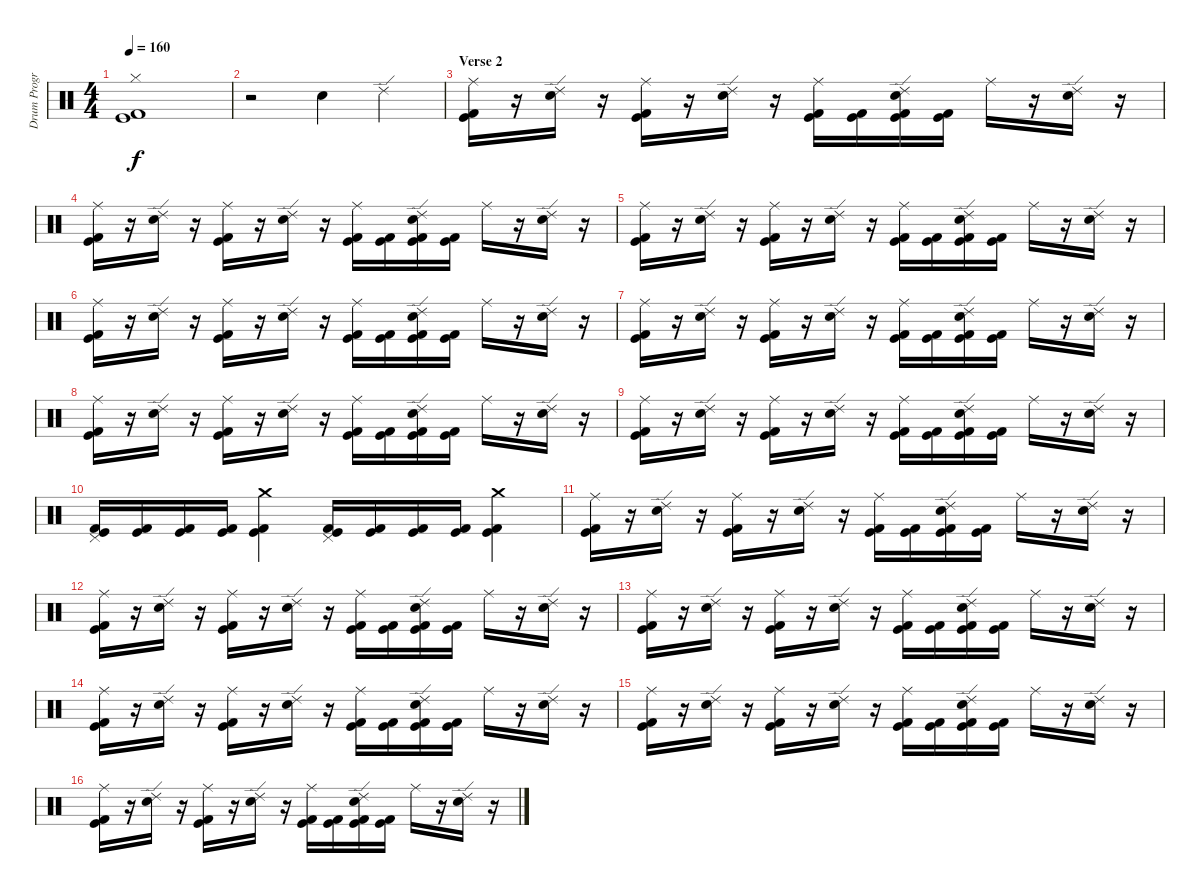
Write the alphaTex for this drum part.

\track ("Drum Program - BG" "Drum Progr") {instrument percussion}
\staff {score}
\articulation defaults
\ts (4 4)
\tempo 160
\clef neutral
\ks c
("Kick (hit) 2" "Kick (hit)" "Hi-Hat (closed)").1{dy f} |
r.2 "Electric Snare (hit)".4 "Ride (edge) 2".4 |
\section ("" "Verse 2")
("Kick (hit) 2" "Kick (hit)" "Ride (middle)").16 r.16 ("Electric Snare (hit)" "Ride (edge) 2").16 r.16 ("Kick (hit)" "Kick (hit) 2" "Ride (middle)").16 r.16 ("Electric Snare (hit)" "Ride (edge) 2").16 r.16 ("Kick (hit)" "Kick (hit) 2" "Ride (middle)").16 ("Kick (hit)" "Kick (hit) 2").16 ("Kick (hit)" "Kick (hit) 2" "Electric Snare (hit)" "Ride (edge) 2").16 ("Kick (hit)" "Kick (hit) 2").16 "Ride (middle)".16 r.16 ("Electric Snare (hit)" "Ride (edge) 2").16 r.16 |
("Kick (hit) 2" "Kick (hit)" "Ride (middle)").16 r.16 ("Electric Snare (hit)" "Ride (edge) 2").16 r.16 ("Kick (hit)" "Kick (hit) 2" "Ride (middle)").16 r.16 ("Electric Snare (hit)" "Ride (edge) 2").16 r.16 ("Kick (hit)" "Kick (hit) 2" "Ride (middle)").16 ("Kick (hit)" "Kick (hit) 2").16 ("Kick (hit)" "Kick (hit) 2" "Electric Snare (hit)" "Ride (edge) 2").16 ("Kick (hit)" "Kick (hit) 2").16 "Ride (middle)".16 r.16 ("Electric Snare (hit)" "Ride (edge) 2").16 r.16 |
("Kick (hit) 2" "Kick (hit)" "Ride (middle)").16 r.16 ("Electric Snare (hit)" "Ride (edge) 2").16 r.16 ("Kick (hit)" "Kick (hit) 2" "Ride (middle)").16 r.16 ("Electric Snare (hit)" "Ride (edge) 2").16 r.16 ("Kick (hit)" "Kick (hit) 2" "Ride (middle)").16 ("Kick (hit)" "Kick (hit) 2").16 ("Kick (hit)" "Kick (hit) 2" "Electric Snare (hit)" "Ride (edge) 2").16 ("Kick (hit)" "Kick (hit) 2").16 "Ride (middle)".16 r.16 ("Electric Snare (hit)" "Ride (edge) 2").16 r.16 |
("Kick (hit) 2" "Kick (hit)" "Ride (middle)").16 r.16 ("Electric Snare (hit)" "Ride (edge) 2").16 r.16 ("Kick (hit)" "Kick (hit) 2" "Ride (middle)").16 r.16 ("Electric Snare (hit)" "Ride (edge) 2").16 r.16 ("Kick (hit)" "Kick (hit) 2" "Ride (middle)").16 ("Kick (hit)" "Kick (hit) 2").16 ("Kick (hit)" "Kick (hit) 2" "Electric Snare (hit)" "Ride (edge) 2").16 ("Kick (hit)" "Kick (hit) 2").16 "Ride (middle)".16 r.16 ("Electric Snare (hit)" "Ride (edge) 2").16 r.16 |
("Kick (hit) 2" "Kick (hit)" "Ride (middle)").16 r.16 ("Electric Snare (hit)" "Ride (edge) 2").16 r.16 ("Kick (hit)" "Kick (hit) 2" "Ride (middle)").16 r.16 ("Electric Snare (hit)" "Ride (edge) 2").16 r.16 ("Kick (hit)" "Kick (hit) 2" "Ride (middle)").16 ("Kick (hit)" "Kick (hit) 2").16 ("Kick (hit)" "Kick (hit) 2" "Electric Snare (hit)" "Ride (edge) 2").16 ("Kick (hit)" "Kick (hit) 2").16 "Ride (middle)".16 r.16 ("Electric Snare (hit)" "Ride (edge) 2").16 r.16 |
("Kick (hit) 2" "Kick (hit)" "Ride (middle)").16 r.16 ("Electric Snare (hit)" "Ride (edge) 2").16 r.16 ("Kick (hit)" "Kick (hit) 2" "Ride (middle)").16 r.16 ("Electric Snare (hit)" "Ride (edge) 2").16 r.16 ("Kick (hit)" "Kick (hit) 2" "Ride (middle)").16 ("Kick (hit)" "Kick (hit) 2").16 ("Kick (hit)" "Kick (hit) 2" "Electric Snare (hit)" "Ride (edge) 2").16 ("Kick (hit)" "Kick (hit) 2").16 "Ride (middle)".16 r.16 ("Electric Snare (hit)" "Ride (edge) 2").16 r.16 |
("Kick (hit) 2" "Kick (hit)" "Ride (middle)").16 r.16 ("Electric Snare (hit)" "Ride (edge) 2").16 r.16 ("Kick (hit)" "Kick (hit) 2" "Ride (middle)").16 r.16 ("Electric Snare (hit)" "Ride (edge) 2").16 r.16 ("Kick (hit)" "Kick (hit) 2" "Ride (middle)").16 ("Kick (hit)" "Kick (hit) 2").16 ("Kick (hit)" "Kick (hit) 2" "Electric Snare (hit)" "Ride (edge) 2").16 ("Kick (hit)" "Kick (hit) 2").16 "Ride (middle)".16 r.16 ("Electric Snare (hit)" "Ride (edge) 2").16 r.16 |
("Kick (hit)" "Kick (hit) 2" "Pedal Hi-Hat (hit)").16 ("Kick (hit)" "Kick (hit) 2").16 ("Kick (hit)" "Kick (hit) 2").16 ("Kick (hit)" "Kick (hit) 2").16 ("Kick (hit)" "Kick (hit) 2" "Crash medium (hit)").4 ("Kick (hit)" "Kick (hit) 2" "Pedal Hi-Hat (hit)").16 ("Kick (hit)" "Kick (hit) 2").16 ("Kick (hit)" "Kick (hit) 2").16 ("Kick (hit)" "Kick (hit) 2").16 ("Kick (hit)" "Kick (hit) 2" "Crash medium (hit)").4 |
("Kick (hit) 2" "Kick (hit)" "Ride (middle)").16 r.16 ("Electric Snare (hit)" "Ride (edge) 2").16 r.16 ("Kick (hit)" "Kick (hit) 2" "Ride (middle)").16 r.16 ("Electric Snare (hit)" "Ride (edge) 2").16 r.16 ("Kick (hit)" "Kick (hit) 2" "Ride (middle)").16 ("Kick (hit)" "Kick (hit) 2").16 ("Kick (hit)" "Kick (hit) 2" "Electric Snare (hit)" "Ride (edge) 2").16 ("Kick (hit)" "Kick (hit) 2").16 "Ride (middle)".16 r.16 ("Electric Snare (hit)" "Ride (edge) 2").16 r.16 |
("Kick (hit) 2" "Kick (hit)" "Ride (middle)").16 r.16 ("Electric Snare (hit)" "Ride (edge) 2").16 r.16 ("Kick (hit)" "Kick (hit) 2" "Ride (middle)").16 r.16 ("Electric Snare (hit)" "Ride (edge) 2").16 r.16 ("Kick (hit)" "Kick (hit) 2" "Ride (middle)").16 ("Kick (hit)" "Kick (hit) 2").16 ("Kick (hit)" "Kick (hit) 2" "Electric Snare (hit)" "Ride (edge) 2").16 ("Kick (hit)" "Kick (hit) 2").16 "Ride (middle)".16 r.16 ("Electric Snare (hit)" "Ride (edge) 2").16 r.16 |
("Kick (hit) 2" "Kick (hit)" "Ride (middle)").16 r.16 ("Electric Snare (hit)" "Ride (edge) 2").16 r.16 ("Kick (hit)" "Kick (hit) 2" "Ride (middle)").16 r.16 ("Electric Snare (hit)" "Ride (edge) 2").16 r.16 ("Kick (hit)" "Kick (hit) 2" "Ride (middle)").16 ("Kick (hit)" "Kick (hit) 2").16 ("Kick (hit)" "Kick (hit) 2" "Electric Snare (hit)" "Ride (edge) 2").16 ("Kick (hit)" "Kick (hit) 2").16 "Ride (middle)".16 r.16 ("Electric Snare (hit)" "Ride (edge) 2").16 r.16 |
("Kick (hit) 2" "Kick (hit)" "Ride (middle)").16 r.16 ("Electric Snare (hit)" "Ride (edge) 2").16 r.16 ("Kick (hit)" "Kick (hit) 2" "Ride (middle)").16 r.16 ("Electric Snare (hit)" "Ride (edge) 2").16 r.16 ("Kick (hit)" "Kick (hit) 2" "Ride (middle)").16 ("Kick (hit)" "Kick (hit) 2").16 ("Kick (hit)" "Kick (hit) 2" "Electric Snare (hit)" "Ride (edge) 2").16 ("Kick (hit)" "Kick (hit) 2").16 "Ride (middle)".16 r.16 ("Electric Snare (hit)" "Ride (edge) 2").16 r.16 |
("Kick (hit) 2" "Kick (hit)" "Ride (middle)").16 r.16 ("Electric Snare (hit)" "Ride (edge) 2").16 r.16 ("Kick (hit)" "Kick (hit) 2" "Ride (middle)").16 r.16 ("Electric Snare (hit)" "Ride (edge) 2").16 r.16 ("Kick (hit)" "Kick (hit) 2" "Ride (middle)").16 ("Kick (hit)" "Kick (hit) 2").16 ("Kick (hit)" "Kick (hit) 2" "Electric Snare (hit)" "Ride (edge) 2").16 ("Kick (hit)" "Kick (hit) 2").16 "Ride (middle)".16 r.16 ("Electric Snare (hit)" "Ride (edge) 2").16 r.16 |
("Kick (hit) 2" "Kick (hit)" "Ride (middle)").16 r.16 ("Electric Snare (hit)" "Ride (edge) 2").16 r.16 ("Kick (hit)" "Kick (hit) 2" "Ride (middle)").16 r.16 ("Electric Snare (hit)" "Ride (edge) 2").16 r.16 ("Kick (hit)" "Kick (hit) 2" "Ride (middle)").16 ("Kick (hit)" "Kick (hit) 2").16 ("Kick (hit)" "Kick (hit) 2" "Electric Snare (hit)" "Ride (edge) 2").16 ("Kick (hit)" "Kick (hit) 2").16 "Ride (middle)".16 r.16 ("Electric Snare (hit)" "Ride (edge) 2").16 r.16
